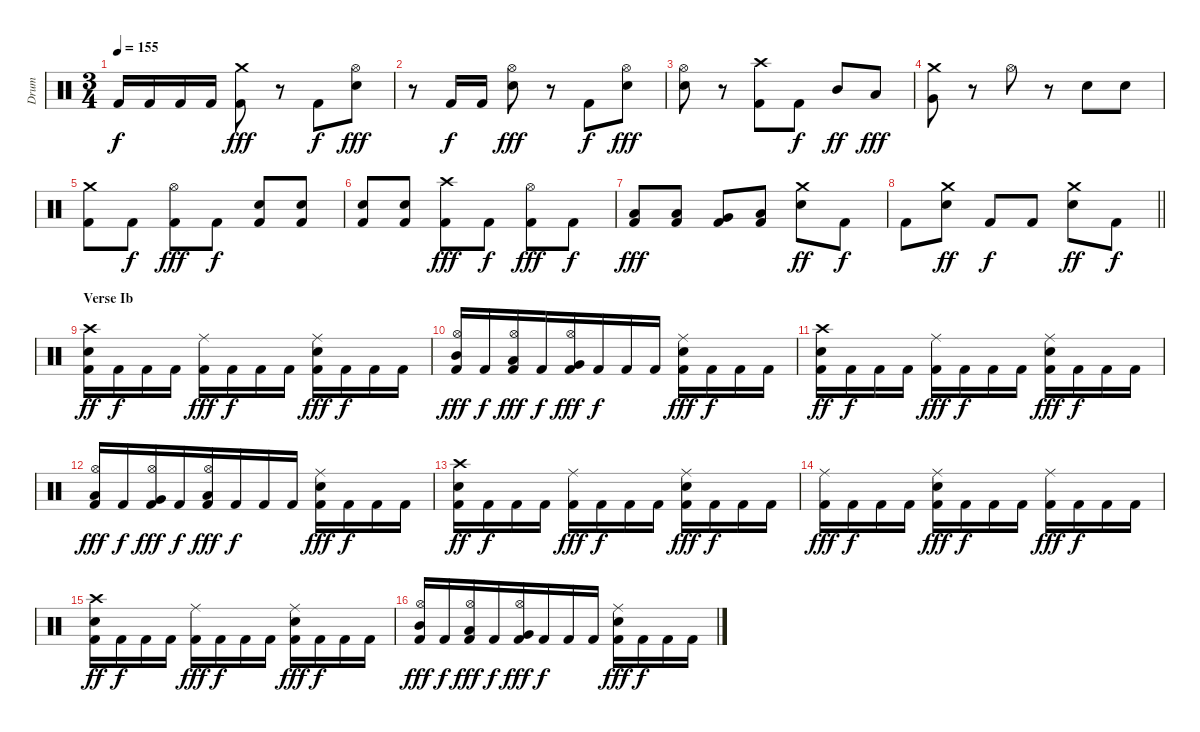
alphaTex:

\track ("Drum" "Drum") {instrument percussion}
\staff {score}
\articulation defaults
\ts (3 4)
\tempo 155
\clef neutral
\ks c "Kick (hit) 2".16{dy f} "Kick (hit) 2".16 "Kick (hit) 2".16 "Kick (hit) 2".16
("Crash medium (hit)" "Kick (hit) 2").8{dy fff} r.8 "Kick (hit) 2".8{dy f} ("Hi-Hat (open)" "Snare (hit) 2").8{dy fff} |
r.8 "Kick (hit) 2".16{dy f} "Kick (hit) 2".16 ("Hi-Hat (open)" "Snare (hit) 2").8{dy fff} r.8 "Kick (hit) 2".8{dy f} ("Hi-Hat (open)" "Snare (hit) 2").8{dy fff} |
("Hi-Hat (open)" "Snare (hit) 2").8 r.8 ("Crash high (hit)" "Kick (hit) 2").8 "Kick (hit) 2".8{dy f} "Mid Tom (hit)".8{dy ff} "Low Tom (hit)".8{dy fff} |
("Crash medium (hit)" "Very Low Tom (hit)").8 r.8 "Hi-Hat (open)".8 r.8 "Snare (hit) 2".8 "Snare (hit) 2".8 |
("Crash medium (hit)" "Kick (hit) 2").8 "Kick (hit) 2".8{dy f} ("Hi-Hat (open)" "Kick (hit) 2").8{dy fff} "Kick (hit) 2".8{dy f} ("Snare (hit) 2" "Kick (hit) 2").8 ("Snare (hit) 2" "Kick (hit) 2").8 |
("Snare (hit) 2" "Kick (hit) 2").8 ("Snare (hit) 2" "Kick (hit) 2").8 ("Crash high (hit)" "Kick (hit) 2").8{dy fff} "Kick (hit) 2".8{dy f} ("Hi-Hat (open)" "Kick (hit) 2").8{dy fff} "Kick (hit) 2".8{dy f} |
("Low Floor Tom (hit)" "Kick (hit) 2").8{dy fff} ("Low Floor Tom (hit)" "Kick (hit) 2").8 ("Very Low Tom (hit)" "Kick (hit) 2").8 ("Low Tom (hit)" "Kick (hit) 2").8 ("Crash medium (hit)" "Snare (hit) 2").8{dy ff} "Kick (hit) 2".8{dy f} |
\barLineRight lightlight "Kick (hit) 2".8
("Crash medium (hit)" "Snare (hit) 2").8{dy ff} "Kick (hit) 2".8{dy f} "Kick (hit) 2".8 ("Crash medium (hit)" "Snare (hit) 2").8{dy ff} "Kick (hit) 2".8{dy f} |
\section ("" "Verse Ib")
("Crash high (hit)" "Snare (hit) 2" "Kick (hit) 2").16{dy ff} "Kick (hit) 2".16{dy f} "Kick (hit) 2".16 "Kick (hit) 2".16 ("Ride (middle)" "Kick (hit) 2").16{dy fff} "Kick (hit) 2".16{dy f} "Kick (hit) 2".16 "Kick (hit) 2".16 ("Ride (middle)" "Snare (hit) 2" "Kick (hit) 2").16{dy fff} "Kick (hit) 2".16{dy f} "Kick (hit) 2".16 "Kick (hit) 2".16 |
("Hi-Hat (open)" "Mid Tom (hit)" "Kick (hit) 2").16{dy fff beam merge} "Kick (hit) 2".16{dy f beam merge} ("Hi-Hat (open)" "Low Tom (hit)" "Kick (hit) 2").16{dy fff} "Kick (hit) 2".16{dy f beam merge} ("Hi-Hat (open)" "Very Low Tom (hit)" "Kick (hit) 2").16{dy fff} "Kick (hit) 2".16{dy f} "Kick (hit) 2".16{beam merge} "Kick (hit) 2".16 ("Ride (middle)" "Snare (hit) 2" "Kick (hit) 2").16{dy fff} "Kick (hit) 2".16{dy f} "Kick (hit) 2".16 "Kick (hit) 2".16 |
("Crash high (hit)" "Snare (hit) 2" "Kick (hit) 2").16{dy ff} "Kick (hit) 2".16{dy f} "Kick (hit) 2".16 "Kick (hit) 2".16 ("Ride (middle)" "Kick (hit) 2").16{dy fff} "Kick (hit) 2".16{dy f} "Kick (hit) 2".16 "Kick (hit) 2".16 ("Ride (middle)" "Snare (hit) 2" "Kick (hit) 2").16{dy fff} "Kick (hit) 2".16{dy f} "Kick (hit) 2".16 "Kick (hit) 2".16 |
("Hi-Hat (open)" "Low Tom (hit)" "Kick (hit) 2").16{dy fff beam merge} "Kick (hit) 2".16{dy f beam merge} ("Hi-Hat (open)" "Very Low Tom (hit)" "Kick (hit) 2").16{dy fff} "Kick (hit) 2".16{dy f beam merge} ("Hi-Hat (open)" "Low Floor Tom (hit)" "Kick (hit) 2").16{dy fff} "Kick (hit) 2".16{dy f} "Kick (hit) 2".16{beam merge} "Kick (hit) 2".16 ("Ride (middle)" "Snare (hit) 2" "Kick (hit) 2").16{dy fff} "Kick (hit) 2".16{dy f} "Kick (hit) 2".16 "Kick (hit) 2".16 |
("Crash high (hit)" "Snare (hit) 2" "Kick (hit) 2").16{dy ff} "Kick (hit) 2".16{dy f} "Kick (hit) 2".16 "Kick (hit) 2".16 ("Ride (middle)" "Kick (hit) 2").16{dy fff} "Kick (hit) 2".16{dy f} "Kick (hit) 2".16 "Kick (hit) 2".16 ("Ride (middle)" "Snare (hit) 2" "Kick (hit) 2").16{dy fff} "Kick (hit) 2".16{dy f} "Kick (hit) 2".16 "Kick (hit) 2".16 |
("Ride (middle)" "Kick (hit) 2").16{dy fff} "Kick (hit) 2".16{dy f} "Kick (hit) 2".16 "Kick (hit) 2".16 ("Ride (middle)" "Snare (hit) 2" "Kick (hit) 2").16{dy fff} "Kick (hit) 2".16{dy f} "Kick (hit) 2".16 "Kick (hit) 2".16 ("Ride (middle)" "Kick (hit) 2").16{dy fff} "Kick (hit) 2".16{dy f} "Kick (hit) 2".16 "Kick (hit) 2".16 |
("Crash high (hit)" "Snare (hit) 2" "Kick (hit) 2").16{dy ff} "Kick (hit) 2".16{dy f} "Kick (hit) 2".16 "Kick (hit) 2".16 ("Ride (middle)" "Kick (hit) 2").16{dy fff} "Kick (hit) 2".16{dy f} "Kick (hit) 2".16 "Kick (hit) 2".16 ("Ride (middle)" "Snare (hit) 2" "Kick (hit) 2").16{dy fff} "Kick (hit) 2".16{dy f} "Kick (hit) 2".16 "Kick (hit) 2".16 |
("Hi-Hat (open)" "Mid Tom (hit)" "Kick (hit) 2").16{dy fff beam merge} "Kick (hit) 2".16{dy f beam merge} ("Hi-Hat (open)" "Low Tom (hit)" "Kick (hit) 2").16{dy fff} "Kick (hit) 2".16{dy f beam merge} ("Hi-Hat (open)" "Very Low Tom (hit)" "Kick (hit) 2").16{dy fff} "Kick (hit) 2".16{dy f} "Kick (hit) 2".16{beam merge} "Kick (hit) 2".16 ("Ride (middle)" "Snare (hit) 2" "Kick (hit) 2").16{dy fff} "Kick (hit) 2".16{dy f} "Kick (hit) 2".16 "Kick (hit) 2".16
